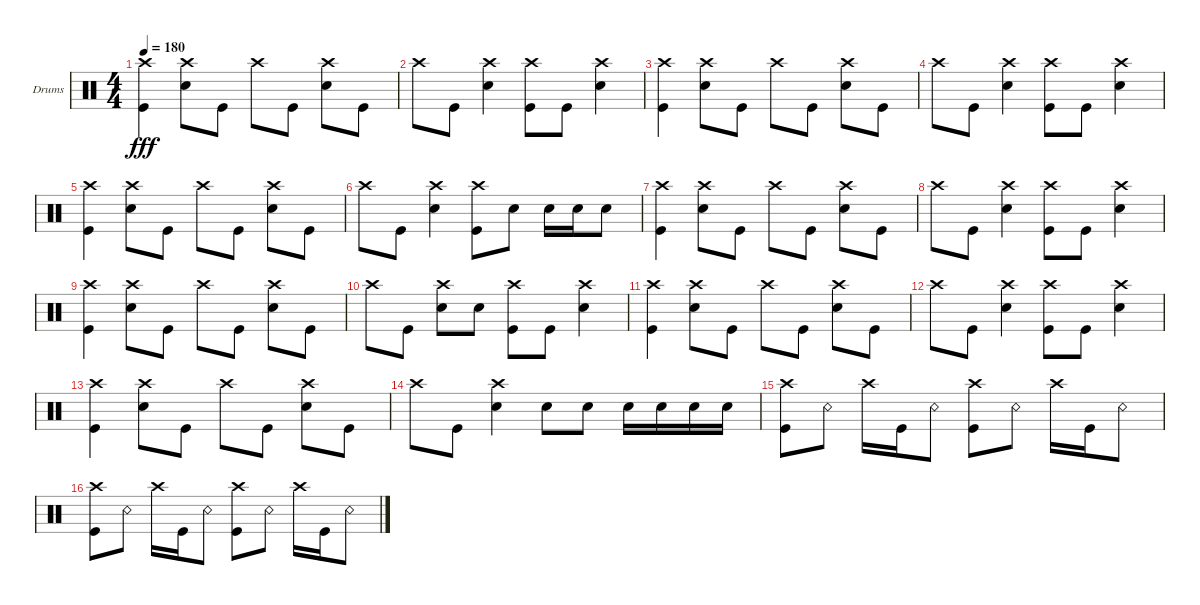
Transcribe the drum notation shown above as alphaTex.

\defaultSystemsLayout 4
\bracketExtendMode groupsimilarinstruments
\firstSystemTrackNameOrientation horizontal
\otherSystemsTrackNameOrientation horizontal
\track ("Drumkit" "Drums") {instrument percussion}
\staff {score}
\articulation defaults
\ts (4 4)
\tempo 180
\clef neutral
\ks c
("Kick (hit)" "Crash high (hit)").4{dy fff} ("Snare (hit) 2" "Crash high (hit)").8 "Kick (hit)".8 "Crash high (hit)".8 "Kick (hit)".8 ("Snare (hit) 2" "Crash high (hit)").8 "Kick (hit)".8 |
"Crash high (hit)".8 "Kick (hit)".8 ("Snare (hit) 2" "Crash high (hit)").4 ("Kick (hit)" "Crash high (hit)").8 "Kick (hit)".8 ("Snare (hit) 2" "Crash high (hit)").4 |
("Kick (hit)" "Crash high (hit)").4 ("Snare (hit) 2" "Crash high (hit)").8 "Kick (hit)".8 "Crash high (hit)".8 "Kick (hit)".8 ("Snare (hit) 2" "Crash high (hit)").8 "Kick (hit)".8 |
"Crash high (hit)".8 "Kick (hit)".8 ("Snare (hit) 2" "Crash high (hit)").4 ("Kick (hit)" "Crash high (hit)").8 "Kick (hit)".8 ("Snare (hit) 2" "Crash high (hit)").4 |
("Kick (hit)" "Crash high (hit)").4 ("Snare (hit) 2" "Crash high (hit)").8 "Kick (hit)".8 "Crash high (hit)".8 "Kick (hit)".8 ("Snare (hit) 2" "Crash high (hit)").8 "Kick (hit)".8 |
"Crash high (hit)".8 "Kick (hit)".8 ("Snare (hit) 2" "Crash high (hit)").4 ("Crash high (hit)" "Kick (hit)").8 "Snare (hit) 2".8 "Snare (hit) 2".16 "Snare (hit) 2".16 "Snare (hit) 2".8 |
("Kick (hit)" "Crash high (hit)").4 ("Snare (hit) 2" "Crash high (hit)").8 "Kick (hit)".8 "Crash high (hit)".8 "Kick (hit)".8 ("Snare (hit) 2" "Crash high (hit)").8 "Kick (hit)".8 |
"Crash high (hit)".8 "Kick (hit)".8 ("Snare (hit) 2" "Crash high (hit)").4 ("Kick (hit)" "Crash high (hit)").8 "Kick (hit)".8 ("Snare (hit) 2" "Crash high (hit)").4 |
("Kick (hit)" "Crash high (hit)").4 ("Snare (hit) 2" "Crash high (hit)").8 "Kick (hit)".8 "Crash high (hit)".8 "Kick (hit)".8 ("Snare (hit) 2" "Crash high (hit)").8 "Kick (hit)".8 |
"Crash high (hit)".8 "Kick (hit)".8 ("Snare (hit) 2" "Crash high (hit)").8 "Snare (hit) 2".8 ("Kick (hit)" "Crash high (hit)").8 "Kick (hit)".8 ("Snare (hit) 2" "Crash high (hit)").4 |
("Kick (hit)" "Crash high (hit)").4 ("Snare (hit) 2" "Crash high (hit)").8 "Kick (hit)".8 "Crash high (hit)".8 "Kick (hit)".8 ("Snare (hit) 2" "Crash high (hit)").8 "Kick (hit)".8 |
"Crash high (hit)".8 "Kick (hit)".8 ("Snare (hit) 2" "Crash high (hit)").4 ("Kick (hit)" "Crash high (hit)").8 "Kick (hit)".8 ("Snare (hit) 2" "Crash high (hit)").4 |
("Kick (hit)" "Crash high (hit)").4 ("Snare (hit) 2" "Crash high (hit)").8 "Kick (hit)".8 "Crash high (hit)".8 "Kick (hit)".8 ("Snare (hit) 2" "Crash high (hit)").8 "Kick (hit)".8 |
"Crash high (hit)".8 "Kick (hit)".8 ("Snare (hit) 2" "Crash high (hit)").4 "Snare (hit) 2".8 "Snare (hit) 2".8 "Snare (hit) 2".16 "Snare (hit) 2".16 "Snare (hit) 2".16 "Snare (hit) 2".16 |
("Kick (hit)" "Crash high (hit)").8 "Snare (rim shot)".8 "Crash high (hit)".16 "Kick (hit)".16 "Snare (rim shot)".8 ("Kick (hit)" "Crash high (hit)").8 "Snare (rim shot)".8 "Crash high (hit)".16 "Kick (hit)".16 "Snare (rim shot)".8 |
("Kick (hit)" "Crash high (hit)").8 "Snare (rim shot)".8 "Crash high (hit)".16 "Kick (hit)".16 "Snare (rim shot)".8 ("Kick (hit)" "Crash high (hit)").8 "Snare (rim shot)".8 "Crash high (hit)".16 "Kick (hit)".16 "Snare (rim shot)".8
